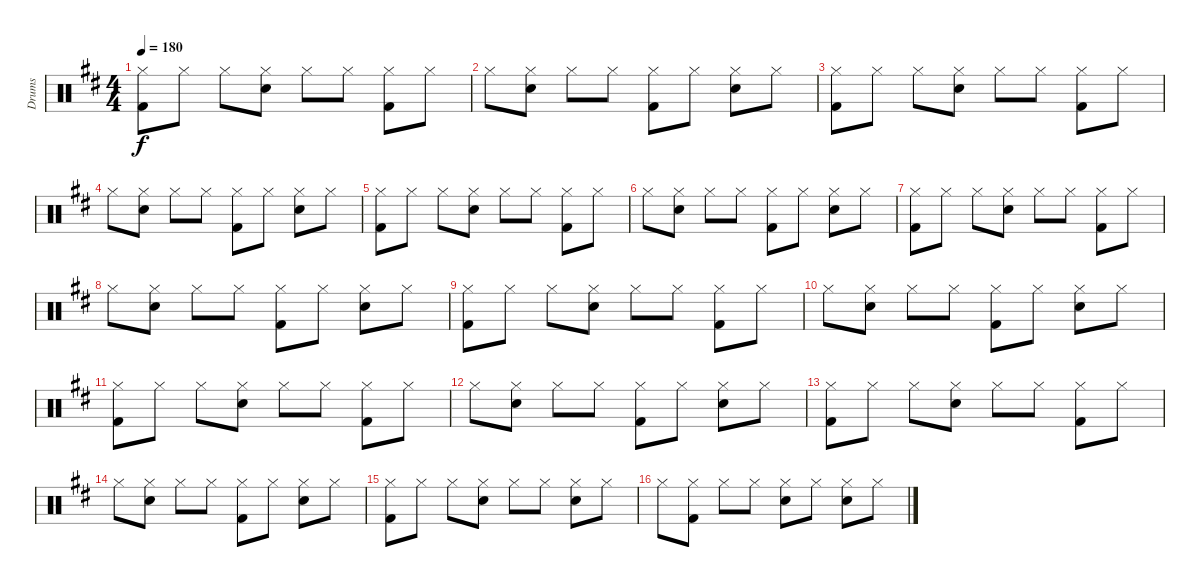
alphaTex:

\track ("Drums" "Drums") {instrument percussion}
\staff {score}
\articulation defaults
\ts (4 4)
\tempo 180
\clef neutral
\ks bminor
("Hi-Hat (closed)" "Kick (hit) 2").8{dy f} "Hi-Hat (closed)".8 "Hi-Hat (closed)".8 ("Hi-Hat (closed)" "Electric Snare (hit)").8 "Hi-Hat (closed)".8 "Hi-Hat (closed)".8 ("Hi-Hat (closed)" "Kick (hit) 2").8 "Hi-Hat (closed)".8 |
"Hi-Hat (closed)".8 ("Hi-Hat (closed)" "Electric Snare (hit)").8 "Hi-Hat (closed)".8 "Hi-Hat (closed)".8 ("Hi-Hat (closed)" "Kick (hit) 2").8 "Hi-Hat (closed)".8 ("Hi-Hat (closed)" "Electric Snare (hit)").8 "Hi-Hat (closed)".8 |
("Hi-Hat (closed)" "Kick (hit) 2").8 "Hi-Hat (closed)".8 "Hi-Hat (closed)".8 ("Hi-Hat (closed)" "Electric Snare (hit)").8 "Hi-Hat (closed)".8 "Hi-Hat (closed)".8 ("Hi-Hat (closed)" "Kick (hit) 2").8 "Hi-Hat (closed)".8 |
"Hi-Hat (closed)".8 ("Hi-Hat (closed)" "Electric Snare (hit)").8 "Hi-Hat (closed)".8 "Hi-Hat (closed)".8 ("Hi-Hat (closed)" "Kick (hit) 2").8 "Hi-Hat (closed)".8 ("Hi-Hat (closed)" "Electric Snare (hit)").8 "Hi-Hat (closed)".8 |
("Hi-Hat (closed)" "Kick (hit) 2").8 "Hi-Hat (closed)".8 "Hi-Hat (closed)".8 ("Hi-Hat (closed)" "Electric Snare (hit)").8 "Hi-Hat (closed)".8 "Hi-Hat (closed)".8 ("Hi-Hat (closed)" "Kick (hit) 2").8 "Hi-Hat (closed)".8 |
"Hi-Hat (closed)".8 ("Hi-Hat (closed)" "Electric Snare (hit)").8 "Hi-Hat (closed)".8 "Hi-Hat (closed)".8 ("Hi-Hat (closed)" "Kick (hit) 2").8 "Hi-Hat (closed)".8 ("Hi-Hat (closed)" "Electric Snare (hit)").8 "Hi-Hat (closed)".8 |
("Hi-Hat (closed)" "Kick (hit) 2").8 "Hi-Hat (closed)".8 "Hi-Hat (closed)".8 ("Hi-Hat (closed)" "Electric Snare (hit)").8 "Hi-Hat (closed)".8 "Hi-Hat (closed)".8 ("Hi-Hat (closed)" "Kick (hit) 2").8 "Hi-Hat (closed)".8 |
"Hi-Hat (closed)".8 ("Hi-Hat (closed)" "Electric Snare (hit)").8 "Hi-Hat (closed)".8 "Hi-Hat (closed)".8 ("Hi-Hat (closed)" "Kick (hit) 2").8 "Hi-Hat (closed)".8 ("Hi-Hat (closed)" "Electric Snare (hit)").8 "Hi-Hat (closed)".8 |
("Hi-Hat (closed)" "Kick (hit) 2").8 "Hi-Hat (closed)".8 "Hi-Hat (closed)".8 ("Hi-Hat (closed)" "Electric Snare (hit)").8 "Hi-Hat (closed)".8 "Hi-Hat (closed)".8 ("Hi-Hat (closed)" "Kick (hit) 2").8 "Hi-Hat (closed)".8 |
"Hi-Hat (closed)".8 ("Hi-Hat (closed)" "Electric Snare (hit)").8 "Hi-Hat (closed)".8 "Hi-Hat (closed)".8 ("Hi-Hat (closed)" "Kick (hit) 2").8 "Hi-Hat (closed)".8 ("Hi-Hat (closed)" "Electric Snare (hit)").8 "Hi-Hat (closed)".8 |
("Hi-Hat (closed)" "Kick (hit) 2").8 "Hi-Hat (closed)".8 "Hi-Hat (closed)".8 ("Hi-Hat (closed)" "Electric Snare (hit)").8 "Hi-Hat (closed)".8 "Hi-Hat (closed)".8 ("Hi-Hat (closed)" "Kick (hit) 2").8 "Hi-Hat (closed)".8 |
"Hi-Hat (closed)".8 ("Hi-Hat (closed)" "Electric Snare (hit)").8 "Hi-Hat (closed)".8 "Hi-Hat (closed)".8 ("Hi-Hat (closed)" "Kick (hit) 2").8 "Hi-Hat (closed)".8 ("Hi-Hat (closed)" "Electric Snare (hit)").8 "Hi-Hat (closed)".8 |
("Hi-Hat (closed)" "Kick (hit) 2").8 "Hi-Hat (closed)".8 "Hi-Hat (closed)".8 ("Hi-Hat (closed)" "Electric Snare (hit)").8 "Hi-Hat (closed)".8 "Hi-Hat (closed)".8 ("Hi-Hat (closed)" "Kick (hit) 2").8 "Hi-Hat (closed)".8 |
"Hi-Hat (closed)".8 ("Hi-Hat (closed)" "Electric Snare (hit)").8 "Hi-Hat (closed)".8 "Hi-Hat (closed)".8 ("Hi-Hat (closed)" "Kick (hit) 2").8 "Hi-Hat (closed)".8 ("Hi-Hat (closed)" "Electric Snare (hit)").8 "Hi-Hat (closed)".8 |
("Hi-Hat (closed)" "Kick (hit) 2").8 "Hi-Hat (closed)".8 "Hi-Hat (closed)".8 ("Hi-Hat (closed)" "Electric Snare (hit)").8 "Hi-Hat (closed)".8 "Hi-Hat (closed)".8 ("Hi-Hat (closed)" "Electric Snare (hit)").8 "Hi-Hat (closed)".8 |
"Hi-Hat (closed)".8 ("Hi-Hat (closed)" "Kick (hit) 2").8 "Hi-Hat (closed)".8 "Hi-Hat (closed)".8 ("Hi-Hat (closed)" "Electric Snare (hit)").8 "Hi-Hat (closed)".8 ("Hi-Hat (closed)" "Electric Snare (hit)").8 "Hi-Hat (closed)".8
